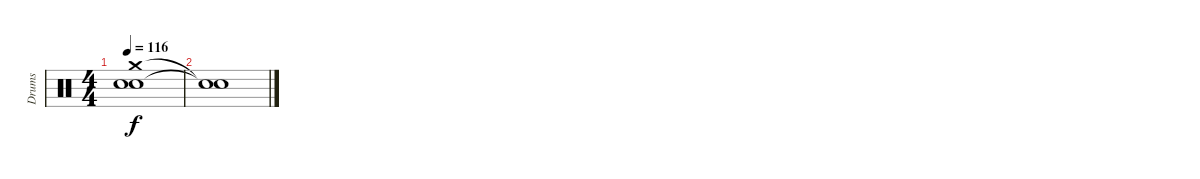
\track ("Drums" "Drums") {instrument percussion}
\staff {score}
\articulation defaults
\ts (4 4)
\tempo 116
\clef neutral
\ks c
("Crash medium (hit)" "Electric Snare (hit)" "Snare (hit) 2").1{dy f} |
("Snare (hit)"{t} "Snare (hit)"{t}).1
